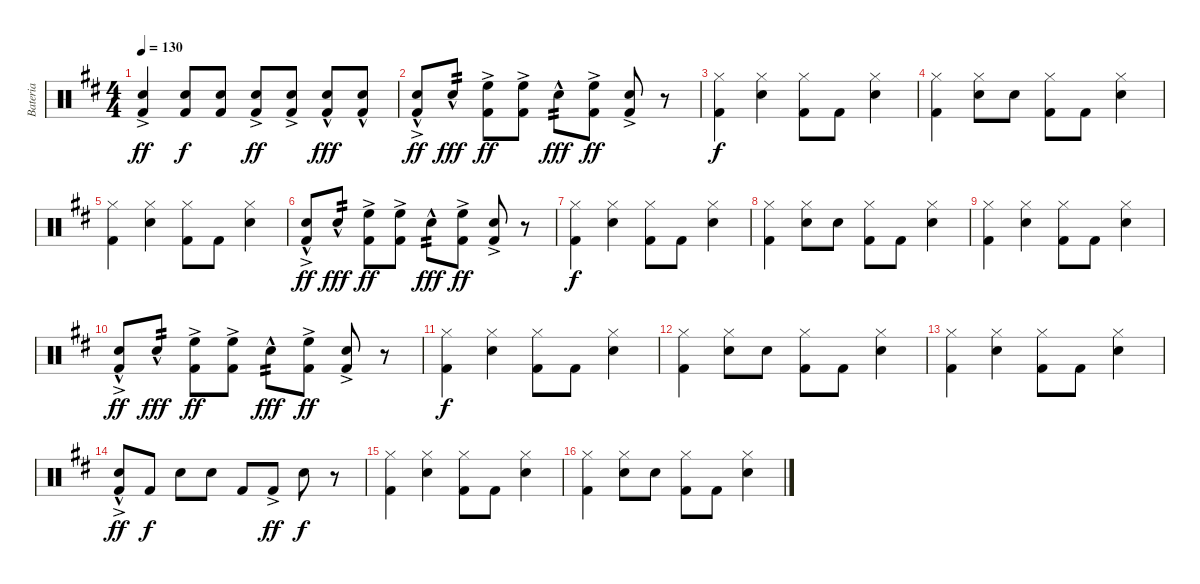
\track ("Bateria" "Bateria") {instrument percussion}
\staff {score}
\articulation defaults
\ts (4 4)
\tempo 130
\clef neutral
\ks d
("Electric Snare (hit)"{ac} "Kick (hit) 2"{ac}).4{dy ff} ("Electric Snare (hit)" "Kick (hit) 2").8{dy f} ("Electric Snare (hit)" "Kick (hit) 2").8 ("Electric Snare (hit)"{ac} "Kick (hit) 2"{ac}).8{dy ff} ("Electric Snare (hit)"{ac} "Kick (hit) 2"{ac}).8 ("Electric Snare (hit)"{hac} "Kick (hit) 2"{hac}).8{dy fff} ("Electric Snare (hit)"{hac} "Kick (hit) 2"{hac}).8 |
("Electric Snare (hit)"{hac} "Kick (hit) 2"{ac}).8{dy ff} "Electric Snare (hit)"{hac}.8{tp 2 dy fff} ("High Floor Tom (hit)" "Kick (hit) 2"{ac}).8{dy ff} ("High Floor Tom (hit)" "Kick (hit) 2"{ac}).8 "Electric Snare (hit)"{hac}.8{tp 2 dy fff} ("High Floor Tom (hit)" "Kick (hit) 2"{ac}).8{dy ff} ("Electric Snare (hit)" "Kick (hit) 2"{ac}).8 r.8 |
("Hi-Hat (closed)" "Kick (hit) 2").4{dy f} ("Hi-Hat (closed)" "Electric Snare (hit)").4 ("Hi-Hat (closed)" "Kick (hit) 2").8 "Kick (hit) 2".8 ("Hi-Hat (closed)" "Electric Snare (hit)").4 |
("Hi-Hat (closed)" "Kick (hit) 2").4 ("Hi-Hat (closed)" "Electric Snare (hit)").8 "Electric Snare (hit)".8 ("Hi-Hat (closed)" "Kick (hit) 2").8 "Kick (hit) 2".8 ("Hi-Hat (closed)" "Electric Snare (hit)").4 |
("Hi-Hat (closed)" "Kick (hit) 2").4 ("Hi-Hat (closed)" "Electric Snare (hit)").4 ("Hi-Hat (closed)" "Kick (hit) 2").8 "Kick (hit) 2".8 ("Hi-Hat (closed)" "Electric Snare (hit)").4 |
("Electric Snare (hit)"{hac} "Kick (hit) 2"{ac}).8{dy ff} "Electric Snare (hit)"{hac}.8{tp 2 dy fff} ("High Floor Tom (hit)" "Kick (hit) 2"{ac}).8{dy ff} ("High Floor Tom (hit)" "Kick (hit) 2"{ac}).8 "Electric Snare (hit)"{hac}.8{tp 2 dy fff} ("High Floor Tom (hit)" "Kick (hit) 2"{ac}).8{dy ff} ("Electric Snare (hit)" "Kick (hit) 2"{ac}).8 r.8 |
("Hi-Hat (closed)" "Kick (hit) 2").4{dy f} ("Hi-Hat (closed)" "Electric Snare (hit)").4 ("Hi-Hat (closed)" "Kick (hit) 2").8 "Kick (hit) 2".8 ("Hi-Hat (closed)" "Electric Snare (hit)").4 |
("Hi-Hat (closed)" "Kick (hit) 2").4 ("Hi-Hat (closed)" "Electric Snare (hit)").8 "Electric Snare (hit)".8 ("Hi-Hat (closed)" "Kick (hit) 2").8 "Kick (hit) 2".8 ("Hi-Hat (closed)" "Electric Snare (hit)").4 |
("Hi-Hat (closed)" "Kick (hit) 2").4 ("Hi-Hat (closed)" "Electric Snare (hit)").4 ("Hi-Hat (closed)" "Kick (hit) 2").8 "Kick (hit) 2".8 ("Hi-Hat (closed)" "Electric Snare (hit)").4 |
("Electric Snare (hit)"{hac} "Kick (hit) 2"{ac}).8{dy ff} "Electric Snare (hit)"{hac}.8{tp 2 dy fff} ("High Floor Tom (hit)" "Kick (hit) 2"{ac}).8{dy ff} ("High Floor Tom (hit)" "Kick (hit) 2"{ac}).8 "Electric Snare (hit)"{hac}.8{tp 2 dy fff} ("High Floor Tom (hit)" "Kick (hit) 2"{ac}).8{dy ff} ("Electric Snare (hit)" "Kick (hit) 2"{ac}).8 r.8 |
("Hi-Hat (closed)" "Kick (hit) 2").4{dy f} ("Hi-Hat (closed)" "Electric Snare (hit)").4 ("Hi-Hat (closed)" "Kick (hit) 2").8 "Kick (hit) 2".8 ("Hi-Hat (closed)" "Electric Snare (hit)").4 |
("Hi-Hat (closed)" "Kick (hit) 2").4 ("Hi-Hat (closed)" "Electric Snare (hit)").8 "Electric Snare (hit)".8 ("Hi-Hat (closed)" "Kick (hit) 2").8 "Kick (hit) 2".8 ("Hi-Hat (closed)" "Electric Snare (hit)").4 |
("Hi-Hat (closed)" "Kick (hit) 2").4 ("Hi-Hat (closed)" "Electric Snare (hit)").4 ("Hi-Hat (closed)" "Kick (hit) 2").8 "Kick (hit) 2".8 ("Hi-Hat (closed)" "Electric Snare (hit)").4 |
("Electric Snare (hit)"{hac} "Kick (hit) 2"{ac}).8{dy ff} "Kick (hit) 2".8{dy f} "Electric Snare (hit)".8 "Electric Snare (hit)".8 "Kick (hit) 2".8 "Kick (hit) 2"{ac}.8{dy ff} "Electric Snare (hit)".8{dy f} r.8 |
("Hi-Hat (closed)" "Kick (hit) 2").4 ("Hi-Hat (closed)" "Electric Snare (hit)").4 ("Hi-Hat (closed)" "Kick (hit) 2").8 "Kick (hit) 2".8 ("Hi-Hat (closed)" "Electric Snare (hit)").4 |
("Hi-Hat (closed)" "Kick (hit) 2").4 ("Hi-Hat (closed)" "Electric Snare (hit)").8 "Electric Snare (hit)".8 ("Hi-Hat (closed)" "Kick (hit) 2").8 "Kick (hit) 2".8 ("Hi-Hat (closed)" "Electric Snare (hit)").4
